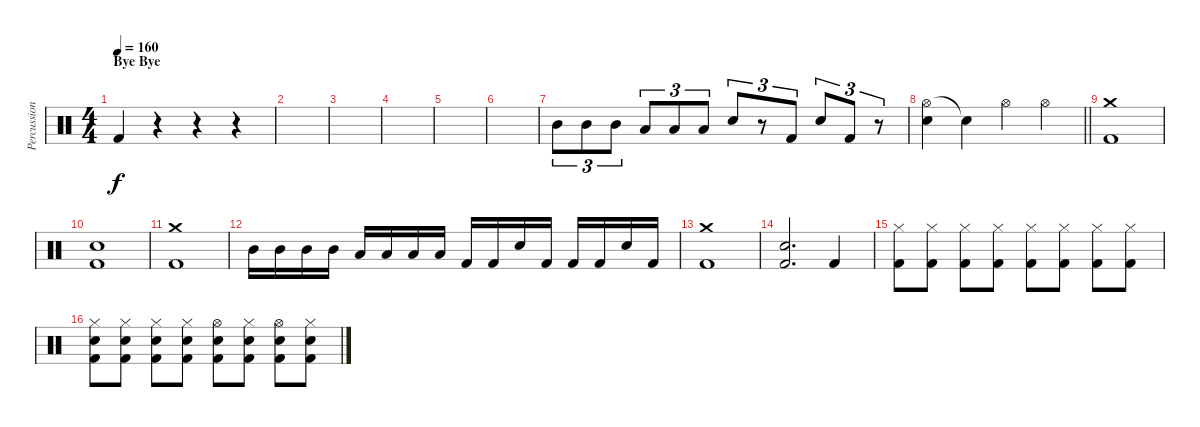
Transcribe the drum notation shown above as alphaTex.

\track ("Percussion" "Percussion") {instrument percussion}
\staff {score}
\articulation defaults
\ts (4 4)
\section ("" "Bye Bye")
\tempo 160
\clef neutral
\ks c "Kick (hit) 2".4{dy f}
r.4 r.4 r.4 |
|
|
|
|
|
"Mid Tom (hit)".8{tu (3 2)} "Mid Tom (hit)".8{tu (3 2)} "Mid Tom (hit)".8{tu (3 2)} "Low Tom (hit)".8{tu (3 2)} "Low Tom (hit)".8{tu (3 2)} "Low Tom (hit)".8{tu (3 2)} "Electric Snare (hit)".8{tu (3 2)} r.8{tu (3 2)} "Kick (hit) 2".8{tu (3 2)} "Electric Snare (hit)".8{tu (3 2)} "Kick (hit) 2".8{tu (3 2)} r.8{tu (3 2)} |
\barLineRight lightlight
("Hi-Hat (open)" "Electric Snare (hit)").4 "Snare (hit)"{t}.4 "Hi-Hat (open)".4 "Hi-Hat (open)".4 |
("Crash medium (hit)" "Kick (hit) 2").1 |
("Electric Snare (hit)" "Kick (hit) 2").1 |
("Crash medium (hit)" "Kick (hit) 2").1 |
"Mid Tom (hit)".16 "Mid Tom (hit)".16 "Mid Tom (hit)".16 "Mid Tom (hit)".16 "Low Tom (hit)".16 "Low Tom (hit)".16 "Low Tom (hit)".16 "Low Tom (hit)".16 "Kick (hit) 2".16 "Kick (hit) 2".16 "Electric Snare (hit)".16 "Kick (hit) 2".16 "Kick (hit) 2".16 "Kick (hit) 2".16 "Electric Snare (hit)".16 "Kick (hit) 2".16 |
("Crash medium (hit)" "Kick (hit) 2").1 |
("Electric Snare (hit)" "Kick (hit) 2").2{d} "Kick (hit) 2".4 |
("Hi-Hat (closed)" "Kick (hit) 2").8 ("Hi-Hat (closed)" "Kick (hit) 2").8 ("Hi-Hat (closed)" "Kick (hit) 2").8 ("Hi-Hat (closed)" "Kick (hit) 2").8 ("Hi-Hat (closed)" "Kick (hit) 2").8 ("Hi-Hat (closed)" "Kick (hit) 2").8 ("Hi-Hat (closed)" "Kick (hit) 2").8 ("Hi-Hat (closed)" "Kick (hit) 2").8 |
("Hi-Hat (closed)" "Electric Snare (hit)" "Kick (hit) 2").8 ("Hi-Hat (closed)" "Electric Snare (hit)" "Kick (hit) 2").8 ("Hi-Hat (closed)" "Electric Snare (hit)" "Kick (hit) 2").8 ("Hi-Hat (closed)" "Electric Snare (hit)" "Kick (hit) 2").8 ("Hi-Hat (open)" "Electric Snare (hit)" "Kick (hit) 2").8 ("Hi-Hat (closed)" "Electric Snare (hit)" "Kick (hit) 2").8 ("Hi-Hat (open)" "Electric Snare (hit)" "Kick (hit) 2").8 ("Hi-Hat (closed)" "Electric Snare (hit)" "Kick (hit) 2").8
